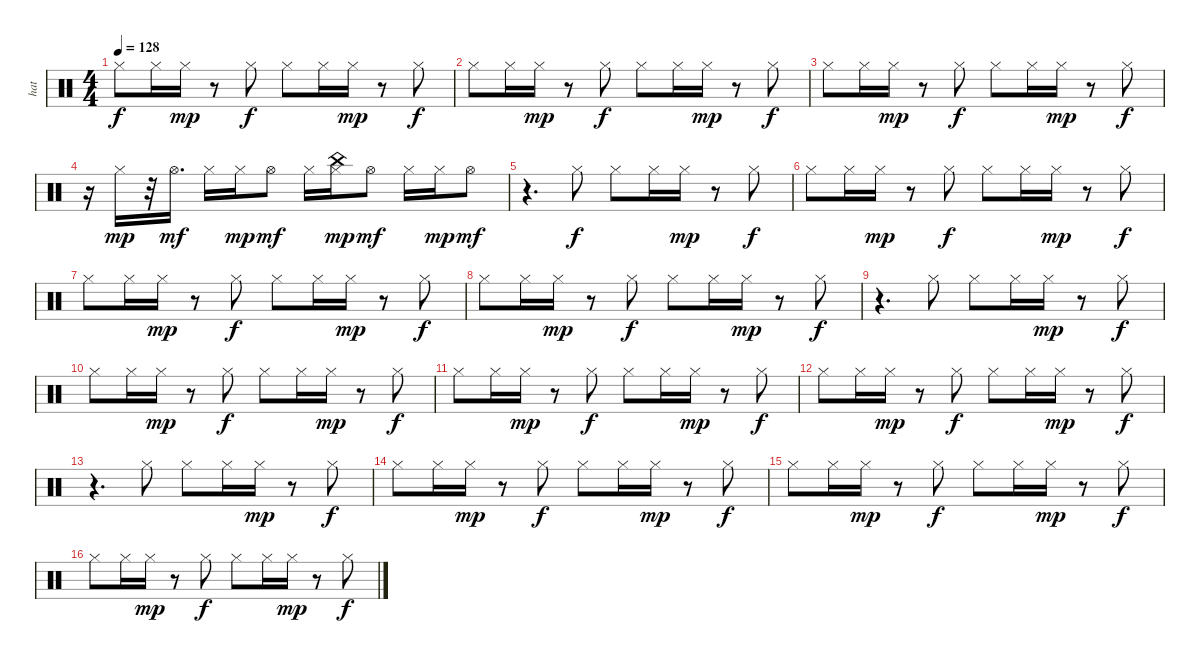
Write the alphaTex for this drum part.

\track ("hat" "hat") {instrument percussion}
\staff {score}
\articulation defaults
\ts (4 4)
\tempo 128
\clef neutral
\ks c "Hi-Hat (closed)".8{dy f} "Hi-Hat (closed)".16 "Hi-Hat (closed)".16{dy mp}
r.8 "Hi-Hat (closed)".8{dy f} "Hi-Hat (closed)".8 "Hi-Hat (closed)".16 "Hi-Hat (closed)".16{dy mp} r.8 "Hi-Hat (closed)".8{dy f} |
"Hi-Hat (closed)".8 "Hi-Hat (closed)".16 "Hi-Hat (closed)".16{dy mp} r.8 "Hi-Hat (closed)".8{dy f} "Hi-Hat (closed)".8 "Hi-Hat (closed)".16 "Hi-Hat (closed)".16{dy mp} r.8 "Hi-Hat (closed)".8{dy f} |
"Hi-Hat (closed)".8 "Hi-Hat (closed)".16 "Hi-Hat (closed)".16{dy mp} r.8 "Hi-Hat (closed)".8{dy f} "Hi-Hat (closed)".8 "Hi-Hat (closed)".16 "Hi-Hat (closed)".16{dy mp} r.8 "Hi-Hat (closed)".8{dy f} |
r.16 "Hi-Hat (closed)".16{dy mp} r.32 "Hi-Hat (open)".16{d dy mf} "Hi-Hat (closed)".16 "Hi-Hat (closed)".16{dy mp} "Hi-Hat (open)".8{dy mf} "Hi-Hat (closed)".16 ("China (hit)" "Hi-Hat (closed)").16{dy mp} "Hi-Hat (open)".8{dy mf} "Hi-Hat (closed)".16 "Hi-Hat (closed)".16{dy mp} "Hi-Hat (open)".8{dy mf} |
r.4{d} "Hi-Hat (closed)".8{dy f} "Hi-Hat (closed)".8 "Hi-Hat (closed)".16 "Hi-Hat (closed)".16{dy mp} r.8 "Hi-Hat (closed)".8{dy f} |
"Hi-Hat (closed)".8 "Hi-Hat (closed)".16 "Hi-Hat (closed)".16{dy mp} r.8 "Hi-Hat (closed)".8{dy f} "Hi-Hat (closed)".8 "Hi-Hat (closed)".16 "Hi-Hat (closed)".16{dy mp} r.8 "Hi-Hat (closed)".8{dy f} |
"Hi-Hat (closed)".8 "Hi-Hat (closed)".16 "Hi-Hat (closed)".16{dy mp} r.8 "Hi-Hat (closed)".8{dy f} "Hi-Hat (closed)".8 "Hi-Hat (closed)".16 "Hi-Hat (closed)".16{dy mp} r.8 "Hi-Hat (closed)".8{dy f} |
"Hi-Hat (closed)".8 "Hi-Hat (closed)".16 "Hi-Hat (closed)".16{dy mp} r.8 "Hi-Hat (closed)".8{dy f} "Hi-Hat (closed)".8 "Hi-Hat (closed)".16 "Hi-Hat (closed)".16{dy mp} r.8 "Hi-Hat (closed)".8{dy f} |
r.4{d} "Hi-Hat (closed)".8 "Hi-Hat (closed)".8 "Hi-Hat (closed)".16 "Hi-Hat (closed)".16{dy mp} r.8 "Hi-Hat (closed)".8{dy f} |
"Hi-Hat (closed)".8 "Hi-Hat (closed)".16 "Hi-Hat (closed)".16{dy mp} r.8 "Hi-Hat (closed)".8{dy f} "Hi-Hat (closed)".8 "Hi-Hat (closed)".16 "Hi-Hat (closed)".16{dy mp} r.8 "Hi-Hat (closed)".8{dy f} |
"Hi-Hat (closed)".8 "Hi-Hat (closed)".16 "Hi-Hat (closed)".16{dy mp} r.8 "Hi-Hat (closed)".8{dy f} "Hi-Hat (closed)".8 "Hi-Hat (closed)".16 "Hi-Hat (closed)".16{dy mp} r.8 "Hi-Hat (closed)".8{dy f} |
"Hi-Hat (closed)".8 "Hi-Hat (closed)".16 "Hi-Hat (closed)".16{dy mp} r.8 "Hi-Hat (closed)".8{dy f} "Hi-Hat (closed)".8 "Hi-Hat (closed)".16 "Hi-Hat (closed)".16{dy mp} r.8 "Hi-Hat (closed)".8{dy f} |
r.4{d} "Hi-Hat (closed)".8 "Hi-Hat (closed)".8 "Hi-Hat (closed)".16 "Hi-Hat (closed)".16{dy mp} r.8 "Hi-Hat (closed)".8{dy f} |
"Hi-Hat (closed)".8 "Hi-Hat (closed)".16 "Hi-Hat (closed)".16{dy mp} r.8 "Hi-Hat (closed)".8{dy f} "Hi-Hat (closed)".8 "Hi-Hat (closed)".16 "Hi-Hat (closed)".16{dy mp} r.8 "Hi-Hat (closed)".8{dy f} |
"Hi-Hat (closed)".8 "Hi-Hat (closed)".16 "Hi-Hat (closed)".16{dy mp} r.8 "Hi-Hat (closed)".8{dy f} "Hi-Hat (closed)".8 "Hi-Hat (closed)".16 "Hi-Hat (closed)".16{dy mp} r.8 "Hi-Hat (closed)".8{dy f} |
"Hi-Hat (closed)".8 "Hi-Hat (closed)".16 "Hi-Hat (closed)".16{dy mp} r.8 "Hi-Hat (closed)".8{dy f} "Hi-Hat (closed)".8 "Hi-Hat (closed)".16 "Hi-Hat (closed)".16{dy mp} r.8 "Hi-Hat (closed)".8{dy f}
